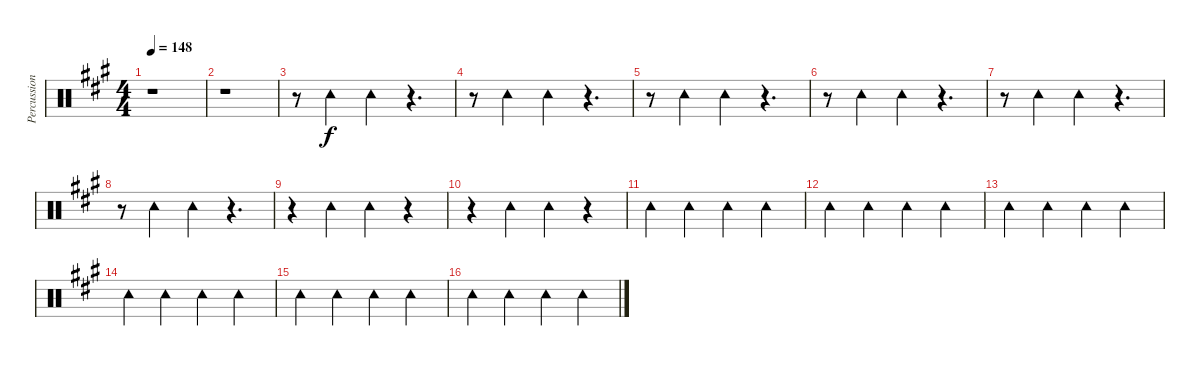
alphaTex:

\track ("Percussion" "Percussion") {instrument percussion}
\staff {score}
\articulation defaults
\ts (4 4)
\tempo 148
\clef neutral
\ks a
r.1{dy f} |
r.1 |
r.8 "Tambourine (hit)".4 "Tambourine (hit)".4 r.4{d} |
r.8 "Tambourine (hit)".4 "Tambourine (hit)".4 r.4{d} |
r.8 "Tambourine (hit)".4 "Tambourine (hit)".4 r.4{d} |
r.8 "Tambourine (hit)".4 "Tambourine (hit)".4 r.4{d} |
r.8 "Tambourine (hit)".4 "Tambourine (hit)".4 r.4{d} |
r.8 "Tambourine (hit)".4 "Tambourine (hit)".4 r.4{d} |
r.4 "Tambourine (hit)".4 "Tambourine (hit)".4 r.4 |
r.4 "Tambourine (hit)".4 "Tambourine (hit)".4 r.4 |
"Tambourine (hit)".4 "Tambourine (hit)".4 "Tambourine (hit)".4 "Tambourine (hit)".4 |
"Tambourine (hit)".4 "Tambourine (hit)".4 "Tambourine (hit)".4 "Tambourine (hit)".4 |
"Tambourine (hit)".4 "Tambourine (hit)".4 "Tambourine (hit)".4 "Tambourine (hit)".4 |
"Tambourine (hit)".4 "Tambourine (hit)".4 "Tambourine (hit)".4 "Tambourine (hit)".4 |
"Tambourine (hit)".4 "Tambourine (hit)".4 "Tambourine (hit)".4 "Tambourine (hit)".4 |
"Tambourine (hit)".4 "Tambourine (hit)".4 "Tambourine (hit)".4 "Tambourine (hit)".4
